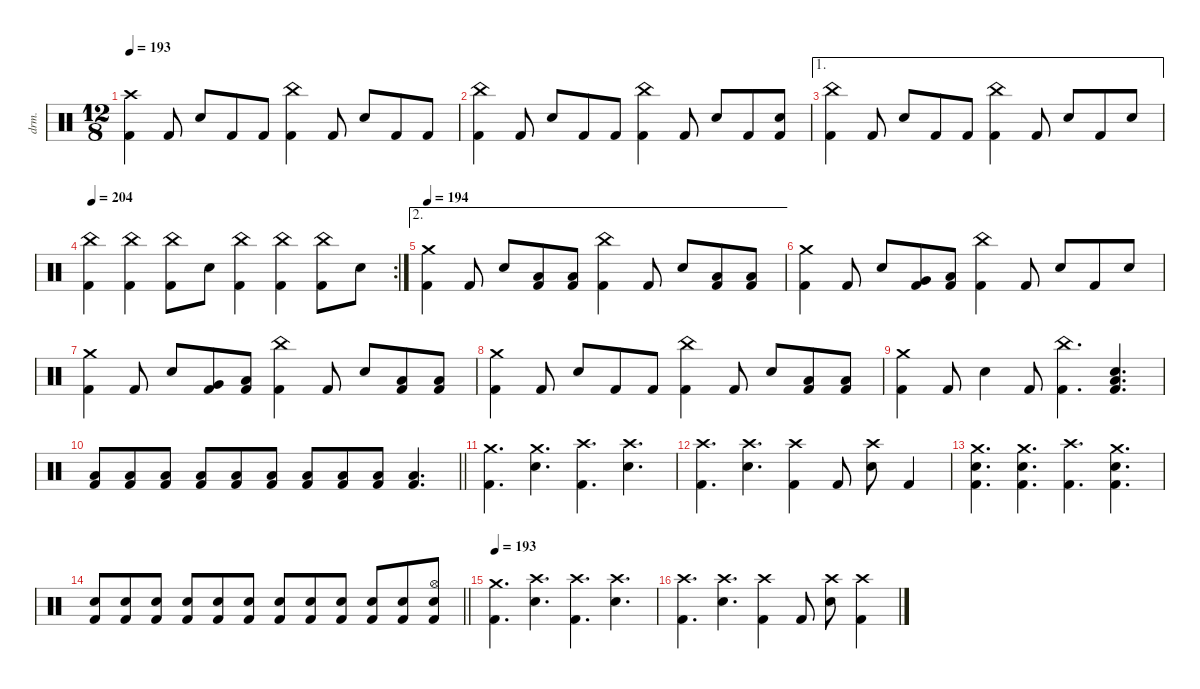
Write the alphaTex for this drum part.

\defaultSystemsLayout 4
\hideDynamics
\bracketExtendMode nobrackets
\otherSystemsTrackNameOrientation horizontal
\track ("Drums" "drm.") {defaultSystemsLayout 4 instrument percussion}
\staff {score}
\articulation defaults
\ts (12 8)
\tempo 193
\clef neutral
\ks c
("Crash high (hit)" "Kick (hit) 2").4{dy f beam Down} "Kick (hit) 2".8{beam Up} "Snare (hit) 2".8{beam Up} "Kick (hit) 2".8{beam Up} "Kick (hit) 2".8{beam Up} ("China (hit)" "Kick (hit) 2").4{beam Down} "Kick (hit) 2".8{beam Up} "Snare (hit) 2".8{beam Up} "Kick (hit) 2".8{beam Up} "Kick (hit) 2".8{beam Up} |
("China (hit)" "Kick (hit) 2").4{beam Down} "Kick (hit) 2".8{beam Up} "Snare (hit) 2".8{beam Up} "Kick (hit) 2".8{beam Up} "Kick (hit) 2".8{beam Up} ("China (hit)" "Kick (hit) 2").4{beam Down} "Kick (hit) 2".8{beam Up} "Snare (hit) 2".8{beam Up} "Kick (hit) 2".8{beam Up} ("Snare (hit) 2" "Kick (hit) 2").8{beam Up} |
\ae 1
("China (hit)" "Kick (hit) 2").4{beam Down} "Kick (hit) 2".8{beam Up} "Snare (hit) 2".8{beam Up} "Kick (hit) 2".8{beam Up} "Kick (hit) 2".8{beam Up} ("China (hit)" "Kick (hit) 2").4{beam Down} "Kick (hit) 2".8{beam Up} "Snare (hit) 2".8{beam Up} "Kick (hit) 2".8{beam Up} "Snare (hit) 2".8{beam Up} |
\rc 2
\tempo 204
("China (hit)" "Kick (hit) 2").4{beam Down} ("China (hit)" "Kick (hit) 2").4{beam Down} ("China (hit)" "Kick (hit) 2").8{beam Down} "Snare (hit) 2".8{beam Down} ("China (hit)" "Kick (hit) 2").4{beam Down} ("China (hit)" "Kick (hit) 2").4{beam Down} ("China (hit)" "Kick (hit) 2").8{beam Down} "Snare (hit) 2".8{beam Down} |
\ae 2
\tempo 194
("Crash medium (hit)" "Kick (hit) 2").4{beam Down} "Kick (hit) 2".8{beam Up} "Snare (hit) 2".8{beam Up} ("Low Tom (hit)" "Kick (hit) 2").8{beam Up} ("Low Floor Tom (hit)" "Kick (hit) 2").8{beam Up} ("China (hit)" "Kick (hit) 2").4{beam Down} "Kick (hit) 2".8{beam Up} "Snare (hit) 2".8{beam Up} ("Low Tom (hit)" "Kick (hit) 2").8{beam Up} ("Low Floor Tom (hit)" "Kick (hit) 2").8{beam Up} |
("Crash medium (hit)" "Kick (hit) 2").4{beam Down} "Kick (hit) 2".8{beam Up} "Snare (hit) 2".8{beam Up} ("Very Low Tom (hit)" "Kick (hit) 2").8{beam Up} ("Low Floor Tom (hit)" "Kick (hit) 2").8{beam Up} ("China (hit)" "Kick (hit) 2").4{beam Down} "Kick (hit) 2".8{beam Up} "Snare (hit) 2".8{beam Up} "Kick (hit) 2".8{beam Up} "Snare (hit) 2".8{beam Up} |
("Crash medium (hit)" "Kick (hit) 2").4{beam Down} "Kick (hit) 2".8{beam Up} "Snare (hit) 2".8{beam Up} ("Very Low Tom (hit)" "Kick (hit) 2").8{beam Up} ("Low Floor Tom (hit)" "Kick (hit) 2").8{beam Up} ("China (hit)" "Kick (hit) 2").4{beam Down} "Kick (hit) 2".8{beam Up} "Snare (hit) 2".8{beam Up} ("Low Tom (hit)" "Kick (hit) 2").8{beam Up} ("Low Floor Tom (hit)" "Kick (hit) 2").8{beam Up} |
("Crash medium (hit)" "Kick (hit) 2").4{beam Down} "Kick (hit) 2".8{beam Up} "Snare (hit) 2".8{beam Up} "Kick (hit) 2".8{beam Up} "Kick (hit) 2".8{beam Up} ("China (hit)" "Kick (hit) 2").4{beam Down} "Kick (hit) 2".8{beam Up} "Snare (hit) 2".8{beam Up} ("Low Tom (hit)" "Kick (hit) 2").8{beam Up} ("Low Floor Tom (hit)" "Kick (hit) 2").8{beam Up} |
("Crash medium (hit)" "Kick (hit) 2").4{beam Down} "Kick (hit) 2".8{beam Up} "Snare (hit) 2".4{beam Down} "Kick (hit) 2".8{beam Up} ("China (hit)" "Kick (hit) 2").4{d beam Down} ("Snare (hit) 2" "Low Floor Tom (hit)" "Kick (hit) 2").4{d beam Up} |
\barLineRight lightlight
("Low Tom (hit)" "Kick (hit) 2").8{beam Up} ("Low Floor Tom (hit)" "Kick (hit) 2").8{beam Up} ("Low Floor Tom (hit)" "Kick (hit) 2").8{beam Up} ("Low Tom (hit)" "Kick (hit) 2").8{beam Up} ("Low Floor Tom (hit)" "Kick (hit) 2").8{beam Up} ("Low Floor Tom (hit)" "Kick (hit) 2").8{beam Up} ("Low Tom (hit)" "Kick (hit) 2").8{beam Up} ("Low Floor Tom (hit)" "Kick (hit) 2").8{beam Up} ("Low Floor Tom (hit)" "Kick (hit) 2").8{beam Up} ("Low Tom (hit)" "Kick (hit) 2").4{d beam Up} |
("Crash medium (hit)" "Kick (hit) 2").4{d beam Down} ("Crash medium (hit)" "Snare (hit) 2").4{d beam Down} ("Crash high (hit)" "Kick (hit) 2").4{d beam Down} ("Crash high (hit)" "Snare (hit) 2").4{d beam Down} |
("Crash high (hit)" "Kick (hit) 2").4{d beam Down} ("Crash high (hit)" "Snare (hit) 2").4{d beam Down} ("Crash high (hit)" "Kick (hit) 2").4{beam Down} "Kick (hit) 2".8{beam Up} ("Crash high (hit)" "Snare (hit) 2").8{beam Down} "Kick (hit) 2".4{beam Up} |
("Crash medium (hit)" "Snare (hit) 2" "Kick (hit) 2").4{d beam Down} ("Crash medium (hit)" "Snare (hit) 2" "Kick (hit) 2").4{d beam Down} ("Crash high (hit)" "Kick (hit) 2").4{d beam Down} ("Crash medium (hit)" "Snare (hit) 2" "Kick (hit) 2").4{d beam Down} |
\barLineRight lightlight
("Snare (hit) 2" "Kick (hit) 2").8{beam Up} ("Snare (hit) 2" "Kick (hit) 2").8{beam Up} ("Snare (hit) 2" "Kick (hit) 2").8{beam Up} ("Snare (hit) 2" "Kick (hit) 2").8{beam Up} ("Snare (hit) 2" "Kick (hit) 2").8{beam Up} ("Snare (hit) 2" "Kick (hit) 2").8{beam Up} ("Snare (hit) 2" "Kick (hit) 2").8{beam Up} ("Snare (hit) 2" "Kick (hit) 2").8{beam Up} ("Snare (hit) 2" "Kick (hit) 2").8{beam Up} ("Snare (hit) 2" "Kick (hit) 2").8{beam Up} ("Snare (hit) 2" "Kick (hit) 2").8{beam Up} ("Hi-Hat (open)" "Snare (hit) 2" "Kick (hit) 2").8{beam Up} |
\tempo 193
("Crash medium (hit)" "Kick (hit) 2").4{d beam Down} ("Crash high (hit)" "Snare (hit) 2").4{d beam Down} ("Crash high (hit)" "Kick (hit) 2").4{d beam Down} ("Crash high (hit)" "Snare (hit) 2").4{d beam Down} |
("Crash high (hit)" "Kick (hit) 2").4{d beam Down} ("Crash high (hit)" "Snare (hit) 2").4{d beam Down} ("Crash high (hit)" "Kick (hit) 2").4{beam Down} "Kick (hit) 2".8{beam Up} ("Crash high (hit)" "Snare (hit) 2").8{beam Down} ("Crash high (hit)" "Kick (hit) 2").4{beam Down}
